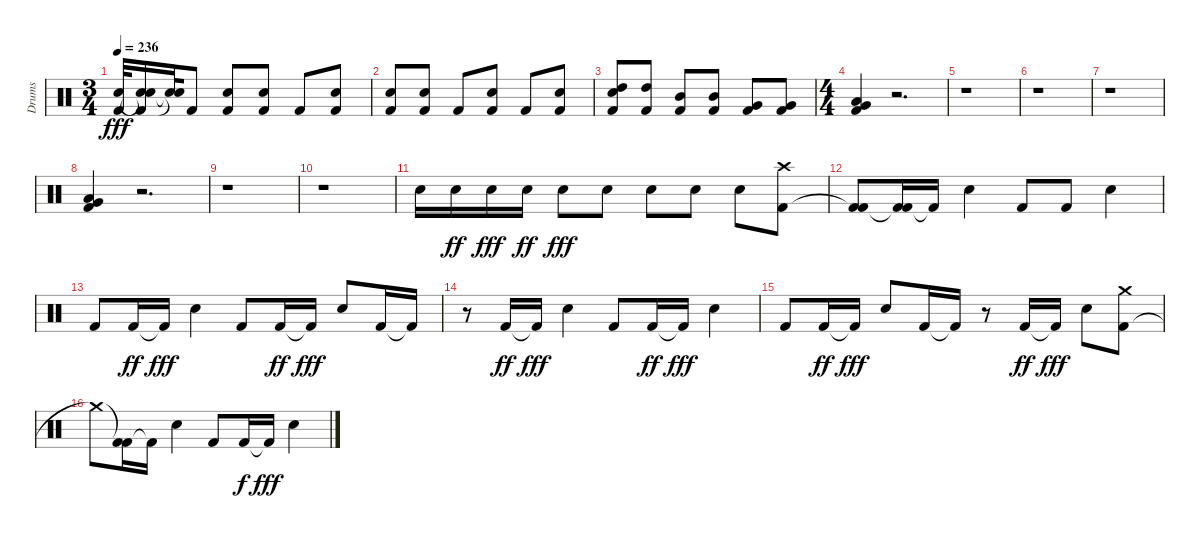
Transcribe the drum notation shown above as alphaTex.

\track ("Drums" "Drums") {instrument percussion}
\staff {score}
\articulation defaults
\ts (3 4)
\tempo 236
\clef neutral
\ks c
("Snare (hit) 2" "Kick (hit) 2").32{dy fff} ("Kick (hit) 2"{t} "Snare (hit) 2"{t} "Hand Clap (hit)").16 ("Snare (hit) 2"{t} "Hand Clap (hit)"{t}).32 "Kick (hit) 2".8 ("Kick (hit) 2" "Snare (hit) 2").8 ("Kick (hit) 2" "Snare (hit) 2").8 "Kick (hit) 2".8 ("Kick (hit) 2" "Snare (hit) 2").8 |
("Kick (hit) 2" "Snare (hit) 2").8 ("Kick (hit) 2" "Snare (hit) 2").8 "Kick (hit) 2".8 ("Kick (hit) 2" "Snare (hit) 2").8 "Kick (hit) 2".8 ("Kick (hit) 2" "Snare (hit) 2").8 |
("Snare (hit) 2" "Kick (hit) 2" "High Tom (hit)").8 ("Kick (hit) 2" "High Tom (hit)").8 ("Kick (hit) 2" "Mid Tom (hit)").8 ("Kick (hit) 2" "Mid Tom (hit)").8 ("Kick (hit) 2" "Very Low Tom (hit)").8 ("Kick (hit) 2" "Very Low Tom (hit)").8 |
\ts (4 4)
("Very Low Tom (hit)" "Low Floor Tom (hit)" "Kick (hit) 2").4 r.2{d} |
r.1 |
r.1 |
r.1 |
("Kick (hit) 2" "Low Floor Tom (hit)" "Very Low Tom (hit)").4 r.2{d} |
r.1 |
r.1 |
"Snare (hit) 2".16 "Snare (hit) 2".16{dy ff} "Snare (hit) 2".16{dy fff} "Snare (hit) 2".16{dy ff} "Snare (hit) 2".8{dy fff} "Snare (hit) 2".8 "Snare (hit) 2".8 "Snare (hit) 2".8 "Snare (hit) 2".8 ("Kick (hit) 2" "Crash high (hit)").8 |
("Kick (hit) 2"{t} "Kick (hit) 2").8 ("Kick (hit) 2"{t} "Kick (hit) 2").16 "Kick (hit) 2"{t}.16 "Snare (hit) 2".4 "Kick (hit) 2".8 "Kick (hit) 2".8 "Snare (hit) 2".4 |
"Kick (hit) 2".8 "Kick (hit) 2".16{dy ff} "Kick (hit) 2"{t}.16{dy fff} "Snare (hit) 2".4 "Kick (hit) 2".8 "Kick (hit) 2".16{dy ff} "Kick (hit) 2"{t}.16{dy fff} "Snare (hit) 2".8 "Kick (hit) 2".16 "Kick (hit) 2"{t}.16 |
r.8 "Kick (hit) 2".16{dy ff} "Kick (hit) 2"{t}.16{dy fff} "Snare (hit) 2".4 "Kick (hit) 2".8 "Kick (hit) 2".16{dy ff} "Kick (hit) 2"{t}.16{dy fff} "Snare (hit) 2".4 |
"Kick (hit) 2".8 "Kick (hit) 2".16{dy ff} "Kick (hit) 2"{t}.16{dy fff} "Snare (hit) 2".8 "Kick (hit) 2".16 "Kick (hit) 2"{t}.16 r.8 "Kick (hit) 2".16{dy ff} "Kick (hit) 2"{t}.16{dy fff} "Snare (hit) 2".8 ("Kick (hit) 2" "Crash medium (hit)").8 |
"Crash medium (hit)"{t}.8 ("Kick (hit) 2"{t} "Kick (hit) 2").16 "Kick (hit) 2"{t}.16 "Snare (hit) 2".4 "Kick (hit) 2".8 "Kick (hit) 2".16{dy f} "Kick (hit) 2"{t}.16{dy fff} "Snare (hit) 2".4
